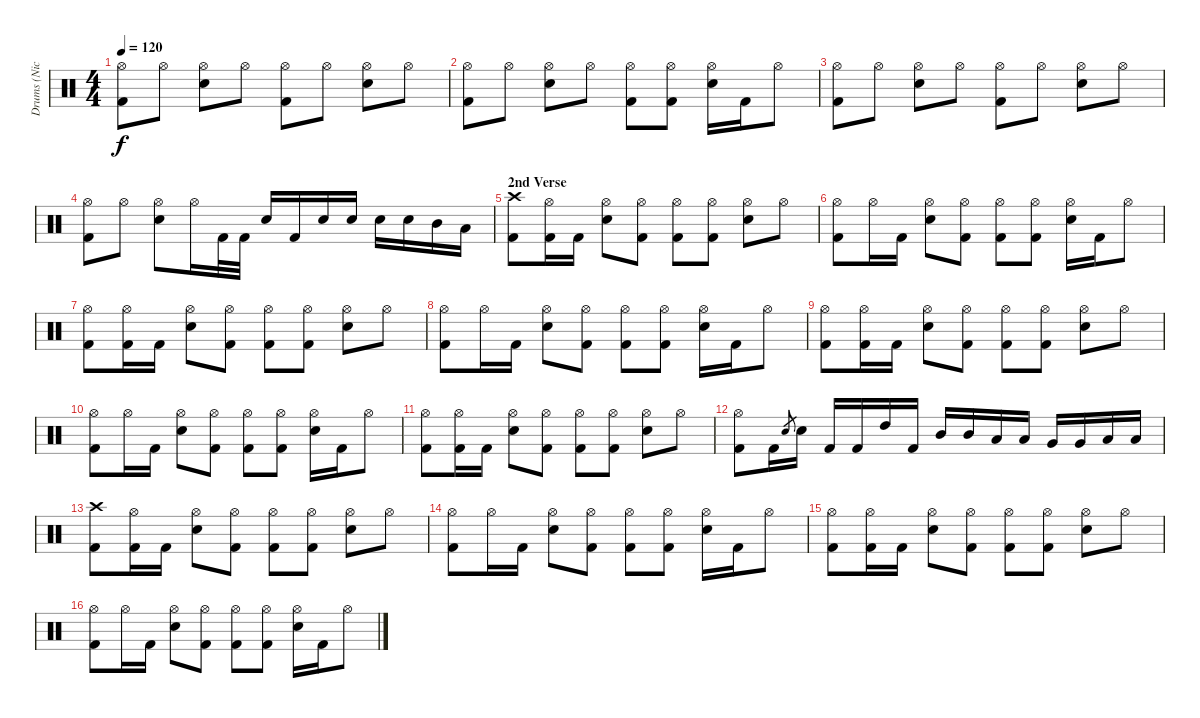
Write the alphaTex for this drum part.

\track ("Drums (Nick Menza)" "Drums (Nic") {instrument percussion}
\staff {score}
\articulation defaults
\ts (4 4)
\tempo 120
\clef neutral
\ks c
("Hi-Hat (open)" "Kick (hit) 2").8{dy f} "Hi-Hat (open)".8 ("Hi-Hat (open)" "Snare (hit) 2").8 "Hi-Hat (open)".8 ("Hi-Hat (open)" "Kick (hit) 2").8 "Hi-Hat (open)".8 ("Hi-Hat (open)" "Snare (hit) 2").8 "Hi-Hat (open)".8 |
("Hi-Hat (open)" "Kick (hit) 2").8 "Hi-Hat (open)".8 ("Hi-Hat (open)" "Snare (hit) 2").8 "Hi-Hat (open)".8 ("Hi-Hat (open)" "Kick (hit) 2").8 ("Hi-Hat (open)" "Kick (hit) 2").8 ("Hi-Hat (open)" "Snare (hit) 2").16 "Kick (hit) 2".16 "Hi-Hat (open)".8 |
("Hi-Hat (open)" "Kick (hit) 2").8 "Hi-Hat (open)".8 ("Hi-Hat (open)" "Snare (hit) 2").8 "Hi-Hat (open)".8 ("Hi-Hat (open)" "Kick (hit) 2").8 "Hi-Hat (open)".8 ("Hi-Hat (open)" "Snare (hit) 2").8 "Hi-Hat (open)".8 |
("Hi-Hat (open)" "Kick (hit) 2").8 "Hi-Hat (open)".8 ("Hi-Hat (open)" "Snare (hit) 2").8 "Hi-Hat (open)".16 "Kick (hit) 2".32 "Kick (hit) 2".32 "Snare (hit) 2".16 "Kick (hit) 2".16 "Snare (hit) 2".16 "Snare (hit) 2".16 "Snare (hit) 2".16 "Snare (hit) 2".16 "Mid Tom (hit)".16 "Low Tom (hit)".16 |
\section ("" "2nd Verse")
("Crash high (hit)" "Kick (hit) 2").8 ("Hi-Hat (open)" "Kick (hit) 2").16 "Kick (hit) 2".16 ("Hi-Hat (open)" "Snare (hit) 2").8 ("Hi-Hat (open)" "Kick (hit) 2").8 ("Hi-Hat (open)" "Kick (hit) 2").8 ("Hi-Hat (open)" "Kick (hit) 2").8 ("Hi-Hat (open)" "Snare (hit) 2").8 "Hi-Hat (open)".8 |
("Hi-Hat (open)" "Kick (hit) 2").8 "Hi-Hat (open)".16 "Kick (hit) 2".16 ("Hi-Hat (open)" "Snare (hit) 2").8 ("Hi-Hat (open)" "Kick (hit) 2").8 ("Hi-Hat (open)" "Kick (hit) 2").8 ("Hi-Hat (open)" "Kick (hit) 2").8 ("Hi-Hat (open)" "Snare (hit) 2").16 "Kick (hit) 2".16 "Hi-Hat (open)".8 |
("Hi-Hat (open)" "Kick (hit) 2").8 ("Hi-Hat (open)" "Kick (hit) 2").16 "Kick (hit) 2".16 ("Hi-Hat (open)" "Snare (hit) 2").8 ("Hi-Hat (open)" "Kick (hit) 2").8 ("Hi-Hat (open)" "Kick (hit) 2").8 ("Hi-Hat (open)" "Kick (hit) 2").8 ("Hi-Hat (open)" "Snare (hit) 2").8 "Hi-Hat (open)".8 |
("Hi-Hat (open)" "Kick (hit) 2").8 "Hi-Hat (open)".16 "Kick (hit) 2".16 ("Hi-Hat (open)" "Snare (hit) 2").8 ("Hi-Hat (open)" "Kick (hit) 2").8 ("Hi-Hat (open)" "Kick (hit) 2").8 ("Hi-Hat (open)" "Kick (hit) 2").8 ("Hi-Hat (open)" "Snare (hit) 2").16 "Kick (hit) 2".16 "Hi-Hat (open)".8 |
("Hi-Hat (open)" "Kick (hit) 2").8 ("Hi-Hat (open)" "Kick (hit) 2").16 "Kick (hit) 2".16 ("Hi-Hat (open)" "Snare (hit) 2").8 ("Hi-Hat (open)" "Kick (hit) 2").8 ("Hi-Hat (open)" "Kick (hit) 2").8 ("Hi-Hat (open)" "Kick (hit) 2").8 ("Hi-Hat (open)" "Snare (hit) 2").8 "Hi-Hat (open)".8 |
("Hi-Hat (open)" "Kick (hit) 2").8 "Hi-Hat (open)".16 "Kick (hit) 2".16 ("Hi-Hat (open)" "Snare (hit) 2").8 ("Hi-Hat (open)" "Kick (hit) 2").8 ("Hi-Hat (open)" "Kick (hit) 2").8 ("Hi-Hat (open)" "Kick (hit) 2").8 ("Hi-Hat (open)" "Snare (hit) 2").16 "Kick (hit) 2".16 "Hi-Hat (open)".8 |
("Hi-Hat (open)" "Kick (hit) 2").8 ("Hi-Hat (open)" "Kick (hit) 2").16 "Kick (hit) 2".16 ("Hi-Hat (open)" "Snare (hit) 2").8 ("Hi-Hat (open)" "Kick (hit) 2").8 ("Hi-Hat (open)" "Kick (hit) 2").8 ("Hi-Hat (open)" "Kick (hit) 2").8 ("Hi-Hat (open)" "Snare (hit) 2").8 "Hi-Hat (open)".8 |
("Hi-Hat (open)" "Kick (hit) 2").8 "Kick (hit) 2".16 "Snare (hit) 2".8{gr} "Snare (hit) 2".16 "Kick (hit) 2".16 "Kick (hit) 2".16 "High Tom (hit)".16 "Kick (hit) 2".16 "Mid Tom (hit)".16 "Mid Tom (hit)".16 "Low Tom (hit)".16 "Low Tom (hit)".16 "Very Low Tom (hit)".16 "Very Low Tom (hit)".16 "Low Floor Tom (hit)".16 "Low Floor Tom (hit)".16 |
("Crash high (hit)" "Kick (hit) 2").8 ("Hi-Hat (open)" "Kick (hit) 2").16 "Kick (hit) 2".16 ("Hi-Hat (open)" "Snare (hit) 2").8 ("Hi-Hat (open)" "Kick (hit) 2").8 ("Hi-Hat (open)" "Kick (hit) 2").8 ("Hi-Hat (open)" "Kick (hit) 2").8 ("Hi-Hat (open)" "Snare (hit) 2").8 "Hi-Hat (open)".8 |
("Hi-Hat (open)" "Kick (hit) 2").8 "Hi-Hat (open)".16 "Kick (hit) 2".16 ("Hi-Hat (open)" "Snare (hit) 2").8 ("Hi-Hat (open)" "Kick (hit) 2").8 ("Hi-Hat (open)" "Kick (hit) 2").8 ("Hi-Hat (open)" "Kick (hit) 2").8 ("Hi-Hat (open)" "Snare (hit) 2").16 "Kick (hit) 2".16 "Hi-Hat (open)".8 |
("Hi-Hat (open)" "Kick (hit) 2").8 ("Hi-Hat (open)" "Kick (hit) 2").16 "Kick (hit) 2".16 ("Hi-Hat (open)" "Snare (hit) 2").8 ("Hi-Hat (open)" "Kick (hit) 2").8 ("Hi-Hat (open)" "Kick (hit) 2").8 ("Hi-Hat (open)" "Kick (hit) 2").8 ("Hi-Hat (open)" "Snare (hit) 2").8 "Hi-Hat (open)".8 |
("Hi-Hat (open)" "Kick (hit) 2").8 "Hi-Hat (open)".16 "Kick (hit) 2".16 ("Hi-Hat (open)" "Snare (hit) 2").8 ("Hi-Hat (open)" "Kick (hit) 2").8 ("Hi-Hat (open)" "Kick (hit) 2").8 ("Hi-Hat (open)" "Kick (hit) 2").8 ("Hi-Hat (open)" "Snare (hit) 2").16 "Kick (hit) 2".16 "Hi-Hat (open)".8
